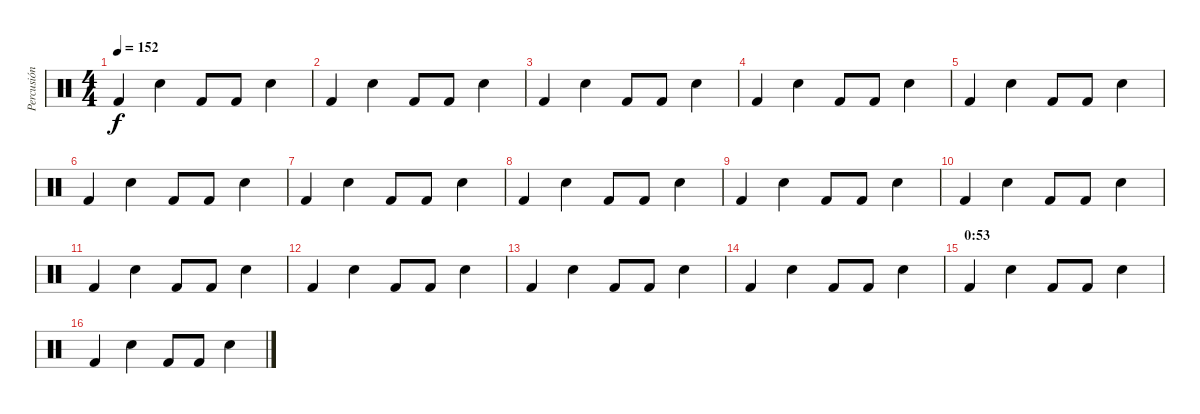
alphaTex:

\track ("Percusión" "Percusión") {instrument percussion}
\staff {score}
\articulation defaults
\ts (4 4)
\tempo 152
\clef neutral
\ks c "Kick (hit) 2".4{dy f} "Snare (hit) 2".4 "Kick (hit) 2".8 "Kick (hit) 2".8 "Snare (hit) 2".4
|
"Kick (hit) 2".4 "Snare (hit) 2".4 "Kick (hit) 2".8 "Kick (hit) 2".8 "Snare (hit) 2".4 |
"Kick (hit) 2".4 "Snare (hit) 2".4 "Kick (hit) 2".8 "Kick (hit) 2".8 "Snare (hit) 2".4 |
"Kick (hit) 2".4 "Snare (hit) 2".4 "Kick (hit) 2".8 "Kick (hit) 2".8 "Snare (hit) 2".4 |
"Kick (hit) 2".4 "Snare (hit) 2".4 "Kick (hit) 2".8 "Kick (hit) 2".8 "Snare (hit) 2".4 |
"Kick (hit) 2".4 "Snare (hit) 2".4 "Kick (hit) 2".8 "Kick (hit) 2".8 "Snare (hit) 2".4 |
"Kick (hit) 2".4 "Snare (hit) 2".4 "Kick (hit) 2".8 "Kick (hit) 2".8 "Snare (hit) 2".4 |
"Kick (hit) 2".4 "Snare (hit) 2".4 "Kick (hit) 2".8 "Kick (hit) 2".8 "Snare (hit) 2".4 |
"Kick (hit) 2".4 "Snare (hit) 2".4 "Kick (hit) 2".8 "Kick (hit) 2".8 "Snare (hit) 2".4 |
"Kick (hit) 2".4 "Snare (hit) 2".4 "Kick (hit) 2".8 "Kick (hit) 2".8 "Snare (hit) 2".4 |
"Kick (hit) 2".4 "Snare (hit) 2".4 "Kick (hit) 2".8 "Kick (hit) 2".8 "Snare (hit) 2".4 |
"Kick (hit) 2".4 "Snare (hit) 2".4 "Kick (hit) 2".8 "Kick (hit) 2".8 "Snare (hit) 2".4 |
"Kick (hit) 2".4 "Snare (hit) 2".4 "Kick (hit) 2".8 "Kick (hit) 2".8 "Snare (hit) 2".4 |
"Kick (hit) 2".4 "Snare (hit) 2".4 "Kick (hit) 2".8 "Kick (hit) 2".8 "Snare (hit) 2".4 |
\section ("" "0:53")
"Kick (hit) 2".4 "Snare (hit) 2".4 "Kick (hit) 2".8 "Kick (hit) 2".8 "Snare (hit) 2".4 |
"Kick (hit) 2".4 "Snare (hit) 2".4 "Kick (hit) 2".8 "Kick (hit) 2".8 "Snare (hit) 2".4
